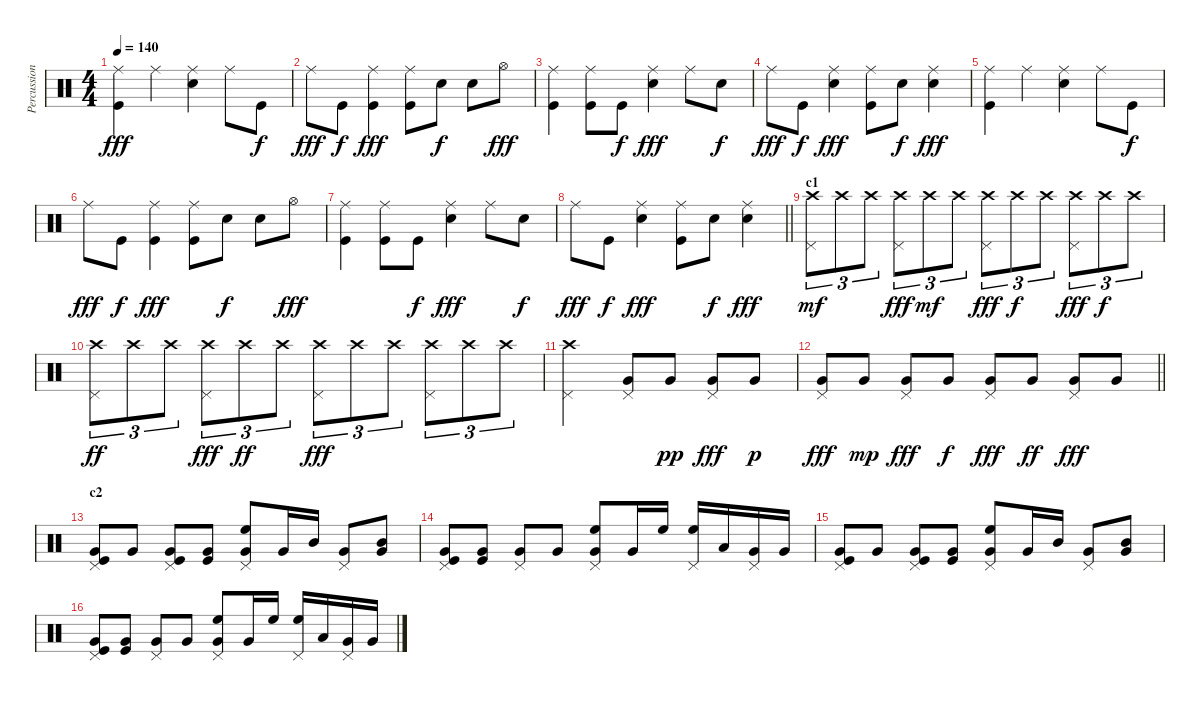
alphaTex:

\track ("Percussion" "Percussion") {instrument percussion}
\staff {score}
\articulation defaults
\ts (4 4)
\tempo 140
\clef neutral
\ks c
("Ride (middle)" "Kick (hit)").4{dy fff} "Ride (middle)".4 ("Ride (middle)" "Snare (hit) 2").4 "Ride (middle)".8 "Kick (hit)".8{dy f} |
"Ride (middle)".8{dy fff} "Kick (hit)".8{dy f} ("Ride (middle)" "Kick (hit)").4{dy fff} ("Ride (middle)" "Kick (hit)").8 "Snare (hit) 2".8{dy f} "Snare (hit) 2".8 "Hi-Hat (open)".8{dy fff} |
("Ride (middle)" "Kick (hit)").4 ("Ride (middle)" "Kick (hit)").8 "Kick (hit)".8{dy f} ("Ride (middle)" "Snare (hit) 2").4{dy fff} "Ride (middle)".8 "Snare (hit) 2".8{dy f} |
"Ride (middle)".8{dy fff} "Kick (hit)".8{dy f} ("Snare (hit) 2" "Ride (middle)").4{dy fff} ("Kick (hit)" "Ride (middle)").8 "Snare (hit) 2".8{dy f} ("Snare (hit) 2" "Ride (middle)").4{dy fff} |
("Ride (middle)" "Kick (hit)").4 "Ride (middle)".4 ("Ride (middle)" "Snare (hit) 2").4 "Ride (middle)".8 "Kick (hit)".8{dy f} |
"Ride (middle)".8{dy fff} "Kick (hit)".8{dy f} ("Ride (middle)" "Kick (hit)").4{dy fff} ("Ride (middle)" "Kick (hit)").8 "Snare (hit) 2".8{dy f} "Snare (hit) 2".8 "Hi-Hat (open)".8{dy fff} |
("Ride (middle)" "Kick (hit)").4 ("Ride (middle)" "Kick (hit)").8 "Kick (hit)".8{dy f} ("Ride (middle)" "Snare (hit) 2").4{dy fff} "Ride (middle)".8 "Snare (hit) 2".8{dy f} |
\barLineRight lightlight "Ride (middle)".8{dy fff} "Kick (hit)".8{dy f}
("Snare (hit) 2" "Ride (middle)").4{dy fff} ("Kick (hit)" "Ride (middle)").8 "Snare (hit) 2".8{dy f} ("Snare (hit) 2" "Ride (middle)").4{dy fff} |
\section ("" "c1")
("Pedal Hi-Hat (hit)" "Crash high (hit)").8{tu (3 2) dy mf} "Crash high (hit)".8{tu (3 2)} "Crash high (hit)".8{tu (3 2)} ("Crash high (hit)" "Pedal Hi-Hat (hit)").8{tu (3 2) dy fff} "Crash high (hit)".8{tu (3 2) dy mf} "Crash high (hit)".8{tu (3 2)} ("Crash high (hit)" "Pedal Hi-Hat (hit)").8{tu (3 2) dy fff} "Crash high (hit)".8{tu (3 2) dy f} "Crash high (hit)".8{tu (3 2)} ("Crash high (hit)" "Pedal Hi-Hat (hit)").8{tu (3 2) dy fff} "Crash high (hit)".8{tu (3 2) dy f} "Crash high (hit)".8{tu (3 2)} |
("Pedal Hi-Hat (hit)" "Crash high (hit)").8{tu (3 2) dy ff} "Crash high (hit)".8{tu (3 2)} "Crash high (hit)".8{tu (3 2)} ("Crash high (hit)" "Pedal Hi-Hat (hit)").8{tu (3 2) dy fff} "Crash high (hit)".8{tu (3 2) dy ff} "Crash high (hit)".8{tu (3 2)} ("Crash high (hit)" "Pedal Hi-Hat (hit)").8{tu (3 2) dy fff} "Crash high (hit)".8{tu (3 2)} "Crash high (hit)".8{tu (3 2)} ("Crash high (hit)" "Pedal Hi-Hat (hit)").8{tu (3 2)} "Crash high (hit)".8{tu (3 2)} "Crash high (hit)".8{tu (3 2)} |
("Crash high (hit)" "Pedal Hi-Hat (hit)").2 ("Very Low Tom (hit)" "Pedal Hi-Hat (hit)").8 "Very Low Tom (hit)".8{dy pp} ("Very Low Tom (hit)" "Pedal Hi-Hat (hit)").8{dy fff} "Very Low Tom (hit)".8{dy p} |
\barLineRight lightlight
("Very Low Tom (hit)" "Pedal Hi-Hat (hit)").8{dy fff} "Very Low Tom (hit)".8{dy mp} ("Very Low Tom (hit)" "Pedal Hi-Hat (hit)").8{dy fff} "Very Low Tom (hit)".8{dy f} ("Very Low Tom (hit)" "Pedal Hi-Hat (hit)").8{dy fff} "Very Low Tom (hit)".8{dy ff} ("Very Low Tom (hit)" "Pedal Hi-Hat (hit)").8{dy fff} "Very Low Tom (hit)".8 |
\section ("" "c2")
("Kick (hit)" "Very Low Tom (hit)" "Pedal Hi-Hat (hit)").8 "Very Low Tom (hit)".8 ("Very Low Tom (hit)" "Kick (hit)" "Pedal Hi-Hat (hit)").8 ("Kick (hit)" "Very Low Tom (hit)").8 ("Very Low Tom (hit)" "High Floor Tom (hit)" "Pedal Hi-Hat (hit)").8 "Very Low Tom (hit)".16 "Mid Tom (hit)".16 ("Very Low Tom (hit)" "Pedal Hi-Hat (hit)").8 ("Very Low Tom (hit)" "Mid Tom (hit)").8 |
("Very Low Tom (hit)" "Kick (hit)" "Pedal Hi-Hat (hit)").8 ("Very Low Tom (hit)" "Kick (hit)").8 ("Very Low Tom (hit)" "Pedal Hi-Hat (hit)").8 "Very Low Tom (hit)".8 ("Very Low Tom (hit)" "High Floor Tom (hit)" "Pedal Hi-Hat (hit)").8 "Very Low Tom (hit)".16 "High Floor Tom (hit)".16 ("High Floor Tom (hit)" "Pedal Hi-Hat (hit)").16 "Low Tom (hit)".16 ("Very Low Tom (hit)" "Pedal Hi-Hat (hit)").16 "Very Low Tom (hit)".16 |
("Kick (hit)" "Very Low Tom (hit)" "Pedal Hi-Hat (hit)").8 "Very Low Tom (hit)".8 ("Very Low Tom (hit)" "Kick (hit)" "Pedal Hi-Hat (hit)").8 ("Kick (hit)" "Very Low Tom (hit)").8 ("Very Low Tom (hit)" "High Floor Tom (hit)" "Pedal Hi-Hat (hit)").8 "Very Low Tom (hit)".16 "Mid Tom (hit)".16 ("Very Low Tom (hit)" "Pedal Hi-Hat (hit)").8 ("Very Low Tom (hit)" "Mid Tom (hit)").8 |
("Very Low Tom (hit)" "Kick (hit)" "Pedal Hi-Hat (hit)").8 ("Very Low Tom (hit)" "Kick (hit)").8 ("Very Low Tom (hit)" "Pedal Hi-Hat (hit)").8 "Very Low Tom (hit)".8 ("Very Low Tom (hit)" "High Floor Tom (hit)" "Pedal Hi-Hat (hit)").8 "Very Low Tom (hit)".16 "High Floor Tom (hit)".16 ("High Floor Tom (hit)" "Pedal Hi-Hat (hit)").16 "Low Tom (hit)".16 ("Very Low Tom (hit)" "Pedal Hi-Hat (hit)").16 "Very Low Tom (hit)".16
